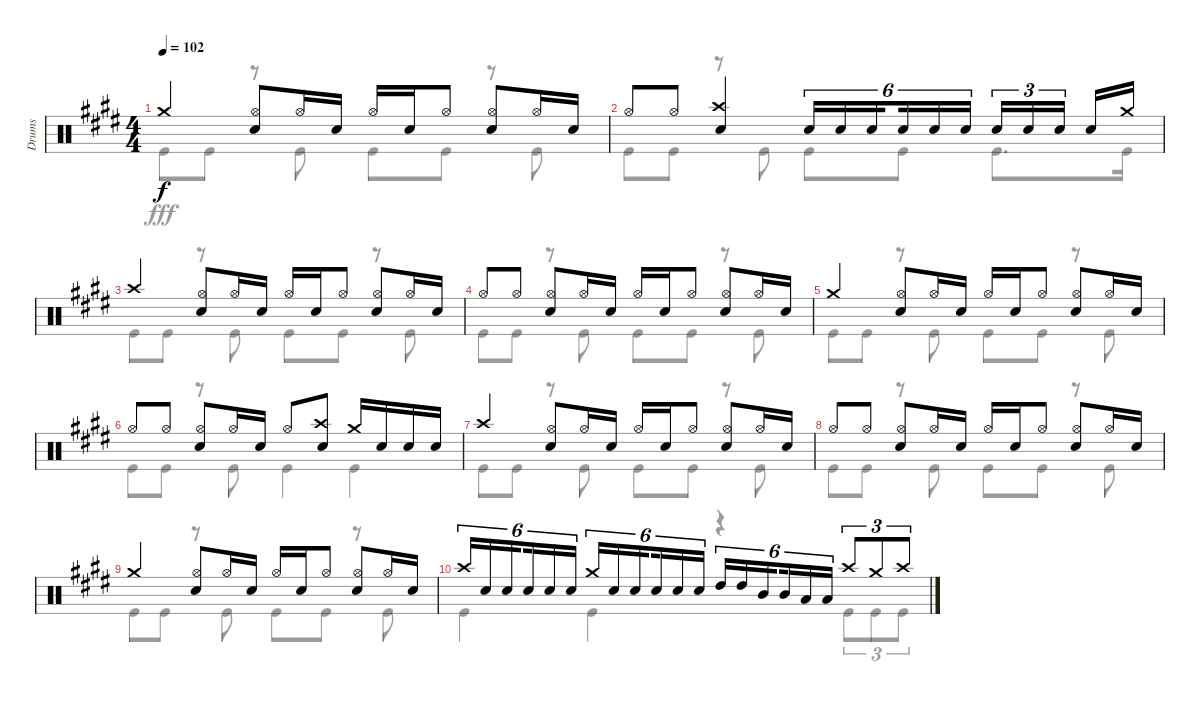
\track ("Drums" "Drums") {instrument percussion}
\staff {score}
\articulation defaults
\voice
\ts (4 4)
\tempo 102
\clef neutral
\ks e "Crash medium (hit)".4{dy f}
("Hi-Hat (open)" "Snare (hit) 2").8 "Hi-Hat (open)".16 "Snare (hit) 2".16 "Hi-Hat (open)".16 "Snare (hit) 2".16 "Hi-Hat (open)".8 ("Hi-Hat (open)" "Snare (hit) 2").8 "Hi-Hat (open)".16 "Snare (hit) 2".16 |
"Hi-Hat (open)".8 "Hi-Hat (open)".8 ("Crash high (hit)" "Snare (hit) 2").4 "Snare (hit) 2".16{tu (6 4)} "Snare (hit) 2".16{tu (6 4)} "Snare (hit) 2".16{tu (6 4) beam splitsecondary} "Snare (hit) 2".16{tu (6 4)} "Snare (hit) 2".16{tu (6 4)} "Snare (hit) 2".16{tu (6 4)} "Snare (hit) 2".16{tu (3 2)} "Snare (hit) 2".16{tu (3 2)} "Snare (hit) 2".16{tu (3 2) beam splitsecondary} "Snare (hit) 2".16 "Crash medium (hit)".16 |
"Crash high (hit)".4 ("Hi-Hat (open)" "Snare (hit) 2").8 "Hi-Hat (open)".16 "Snare (hit) 2".16 "Hi-Hat (open)".16 "Snare (hit) 2".16 "Hi-Hat (open)".8 ("Hi-Hat (open)" "Snare (hit) 2").8 "Hi-Hat (open)".16 "Snare (hit) 2".16 |
"Hi-Hat (open)".8 "Hi-Hat (open)".8 ("Hi-Hat (open)" "Snare (hit) 2").8 "Hi-Hat (open)".16 "Snare (hit) 2".16 "Hi-Hat (open)".16 "Snare (hit) 2".16 "Hi-Hat (open)".8 ("Hi-Hat (open)" "Snare (hit) 2").8 "Hi-Hat (open)".16 "Snare (hit) 2".16 |
"Crash medium (hit)".4 ("Hi-Hat (open)" "Snare (hit) 2").8 "Hi-Hat (open)".16 "Snare (hit) 2".16 "Hi-Hat (open)".16 "Snare (hit) 2".16 "Hi-Hat (open)".8 ("Hi-Hat (open)" "Snare (hit) 2").8 "Hi-Hat (open)".16 "Snare (hit) 2".16 |
"Hi-Hat (open)".8 "Hi-Hat (open)".8 ("Hi-Hat (open)" "Snare (hit) 2").8 "Hi-Hat (open)".16 "Snare (hit) 2".16 "Hi-Hat (open)".8 ("Crash high (hit)" "Snare (hit) 2").8 "Crash medium (hit)".16 "Snare (hit) 2".16 "Snare (hit) 2".16 "Snare (hit) 2".16 |
"Crash high (hit)".4 ("Hi-Hat (open)" "Snare (hit) 2").8 "Hi-Hat (open)".16 "Snare (hit) 2".16 "Hi-Hat (open)".16 "Snare (hit) 2".16 "Hi-Hat (open)".8 ("Hi-Hat (open)" "Snare (hit) 2").8 "Hi-Hat (open)".16 "Snare (hit) 2".16 |
"Hi-Hat (open)".8 "Hi-Hat (open)".8 ("Hi-Hat (open)" "Snare (hit) 2").8 "Hi-Hat (open)".16 "Snare (hit) 2".16 "Hi-Hat (open)".16 "Snare (hit) 2".16 "Hi-Hat (open)".8 ("Hi-Hat (open)" "Snare (hit) 2").8 "Hi-Hat (open)".16 "Snare (hit) 2".16 |
"Crash medium (hit)".4 ("Hi-Hat (open)" "Snare (hit) 2").8 "Hi-Hat (open)".16 "Snare (hit) 2".16 "Hi-Hat (open)".16 "Snare (hit) 2".16 "Hi-Hat (open)".8 ("Hi-Hat (open)" "Snare (hit) 2").8 "Hi-Hat (open)".16 "Snare (hit) 2".16 |
"Crash high (hit)".16{tu (6 4)} "Snare (hit) 2".16{tu (6 4)} "Snare (hit) 2".16{tu (6 4) beam splitsecondary} "Snare (hit) 2".16{tu (6 4)} "Snare (hit) 2".16{tu (6 4)} "Snare (hit) 2".16{tu (6 4)} "Crash medium (hit)".16{tu (6 4)} "Snare (hit) 2".16{tu (6 4)} "Snare (hit) 2".16{tu (6 4) beam splitsecondary} "Snare (hit) 2".16{tu (6 4)} "Snare (hit) 2".16{tu (6 4)} "Snare (hit) 2".16{tu (6 4)} "High Tom (hit)".16{tu (6 4)} "High Tom (hit)".16{tu (6 4)} "Mid Tom (hit)".16{tu (6 4) beam splitsecondary} "Mid Tom (hit)".16{tu (6 4)} "Low Tom (hit)".16{tu (6 4)} "Low Tom (hit)".16{tu (6 4)} "Crash high (hit)".8{tu (3 2)} "Crash medium (hit)".8{tu (3 2)} "Crash high (hit)".8{tu (3 2)}
\voice
\clef neutral
\ottava regular
\simile none
\ks e "Kick (hit)".8{dy fff} "Kick (hit)".8
r.8 "Kick (hit)".8 "Kick (hit)".8 "Kick (hit)".8 r.8 "Kick (hit)".8 |
"Kick (hit)".8 "Kick (hit)".8 r.8 "Kick (hit)".8 "Kick (hit)".8 "Kick (hit)".8 "Kick (hit)".8{d} "Kick (hit)".16 |
"Kick (hit)".8 "Kick (hit)".8 r.8 "Kick (hit)".8 "Kick (hit)".8 "Kick (hit)".8 r.8 "Kick (hit)".8 |
"Kick (hit)".8 "Kick (hit)".8 r.8 "Kick (hit)".8 "Kick (hit)".8 "Kick (hit)".8 r.8 "Kick (hit)".8 |
"Kick (hit)".8 "Kick (hit)".8 r.8 "Kick (hit)".8 "Kick (hit)".8 "Kick (hit)".8 r.8 "Kick (hit)".8 |
"Kick (hit)".8 "Kick (hit)".8 r.8 "Kick (hit)".8 "Kick (hit)".4 "Kick (hit)".4 |
"Kick (hit)".8 "Kick (hit)".8 r.8 "Kick (hit)".8 "Kick (hit)".8 "Kick (hit)".8 r.8 "Kick (hit)".8 |
"Kick (hit)".8 "Kick (hit)".8 r.8 "Kick (hit)".8 "Kick (hit)".8 "Kick (hit)".8 r.8 "Kick (hit)".8 |
"Kick (hit)".8 "Kick (hit)".8 r.8 "Kick (hit)".8 "Kick (hit)".8 "Kick (hit)".8 r.8 "Kick (hit)".8 |
"Kick (hit)".4 "Kick (hit)".4 r.4 "Kick (hit)".8{tu (3 2)} "Kick (hit)".8{tu (3 2)} "Kick (hit)".8{tu (3 2)}
